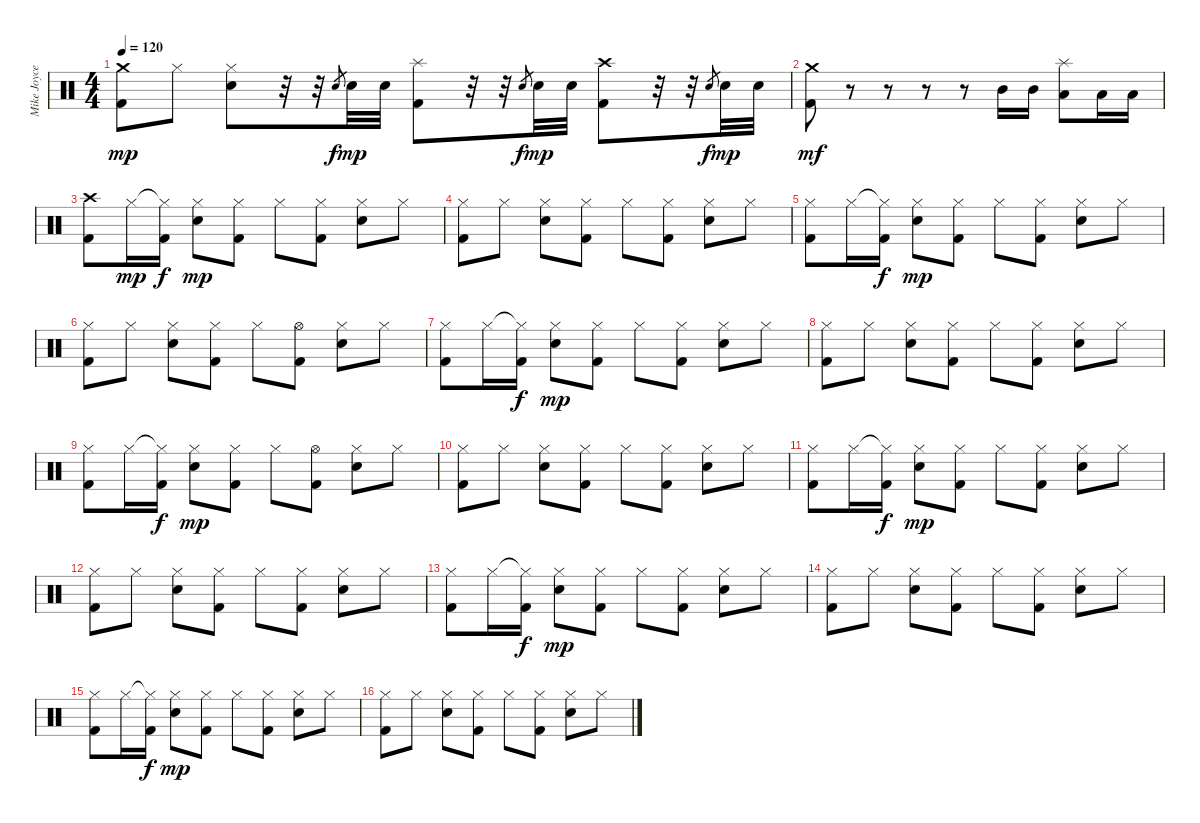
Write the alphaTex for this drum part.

\track ("Mike Joyce" "Mike Joyce") {instrument percussion}
\staff {score}
\articulation defaults
\ts (4 4)
\tempo 120
\clef neutral
\ks c
("Crash medium (hit)" "Kick (hit) 2").8{dy mp} "Hi-Hat (closed)".8 ("Hi-Hat (closed)" "Electric Snare (hit)").8 r.32 r.32 "Electric Snare (hit)".8{gr dy f} "Electric Snare (hit)".32{dy mp} "Electric Snare (hit)".32 ("Splash (hit)" "Kick (hit) 2").8 r.32 r.32 "Electric Snare (hit)".8{gr dy f} "Electric Snare (hit)".32{dy mp} "Electric Snare (hit)".32 ("Crash high (hit)" "Kick (hit) 2").8 r.32 r.32 "Electric Snare (hit)".8{gr dy f} "Electric Snare (hit)".32{dy mp} "Electric Snare (hit)".32 |
("Crash medium (hit)" "Kick (hit) 2").8{dy mf} r.8 r.8 r.8 r.8 "Mid Tom (hit)".16 "Mid Tom (hit)".16 ("Splash (hit)" "Low Tom (hit)").8 "Low Floor Tom (hit)".16 "Low Tom (hit)".16 |
("Crash high (hit)" "Kick (hit) 2").8 "Hi-Hat (closed)".16{dy mp} ("Hi-Hat (closed)"{t} "Kick (hit) 2").16{dy f} ("Hi-Hat (closed)" "Electric Snare (hit)").8{dy mp} ("Hi-Hat (closed)" "Kick (hit) 2").8 "Hi-Hat (closed)".8 ("Hi-Hat (closed)" "Kick (hit) 2").8 ("Hi-Hat (closed)" "Electric Snare (hit)").8 "Hi-Hat (closed)".8 |
("Hi-Hat (closed)" "Kick (hit) 2").8 "Hi-Hat (closed)".8 ("Hi-Hat (closed)" "Electric Snare (hit)").8 ("Hi-Hat (closed)" "Kick (hit) 2").8 "Hi-Hat (closed)".8 ("Hi-Hat (closed)" "Kick (hit) 2").8 ("Hi-Hat (closed)" "Electric Snare (hit)").8 "Hi-Hat (closed)".8 |
("Hi-Hat (closed)" "Kick (hit) 2").8 "Hi-Hat (closed)".16 ("Hi-Hat (closed)"{t} "Kick (hit) 2").16{dy f} ("Hi-Hat (closed)" "Electric Snare (hit)").8{dy mp} ("Hi-Hat (closed)" "Kick (hit) 2").8 "Hi-Hat (closed)".8 ("Hi-Hat (closed)" "Kick (hit) 2").8 ("Hi-Hat (closed)" "Electric Snare (hit)").8 "Hi-Hat (closed)".8 |
("Hi-Hat (closed)" "Kick (hit) 2").8 "Hi-Hat (closed)".8 ("Hi-Hat (closed)" "Electric Snare (hit)").8 ("Hi-Hat (closed)" "Kick (hit) 2").8 "Hi-Hat (closed)".8 ("Hi-Hat (open)" "Kick (hit) 2").8 ("Hi-Hat (closed)" "Electric Snare (hit)").8 "Hi-Hat (closed)".8 |
("Hi-Hat (closed)" "Kick (hit) 2").8 "Hi-Hat (closed)".16 ("Hi-Hat (closed)"{t} "Kick (hit) 2").16{dy f} ("Hi-Hat (closed)" "Electric Snare (hit)").8{dy mp} ("Hi-Hat (closed)" "Kick (hit) 2").8 "Hi-Hat (closed)".8 ("Hi-Hat (closed)" "Kick (hit) 2").8 ("Hi-Hat (closed)" "Electric Snare (hit)").8 "Hi-Hat (closed)".8 |
("Hi-Hat (closed)" "Kick (hit) 2").8 "Hi-Hat (closed)".8 ("Hi-Hat (closed)" "Electric Snare (hit)").8 ("Hi-Hat (closed)" "Kick (hit) 2").8 "Hi-Hat (closed)".8 ("Hi-Hat (closed)" "Kick (hit) 2").8 ("Hi-Hat (closed)" "Electric Snare (hit)").8 "Hi-Hat (closed)".8 |
("Hi-Hat (closed)" "Kick (hit) 2").8 "Hi-Hat (closed)".16 ("Hi-Hat (closed)"{t} "Kick (hit) 2").16{dy f} ("Hi-Hat (closed)" "Electric Snare (hit)").8{dy mp} ("Hi-Hat (closed)" "Kick (hit) 2").8 "Hi-Hat (closed)".8 ("Hi-Hat (open)" "Kick (hit) 2").8 ("Hi-Hat (closed)" "Electric Snare (hit)").8 "Hi-Hat (closed)".8 |
("Hi-Hat (closed)" "Kick (hit) 2").8 "Hi-Hat (closed)".8 ("Hi-Hat (closed)" "Electric Snare (hit)").8 ("Hi-Hat (closed)" "Kick (hit) 2").8 "Hi-Hat (closed)".8 ("Hi-Hat (closed)" "Kick (hit) 2").8 ("Hi-Hat (closed)" "Electric Snare (hit)").8 "Hi-Hat (closed)".8 |
("Hi-Hat (closed)" "Kick (hit) 2").8 "Hi-Hat (closed)".16 ("Hi-Hat (closed)"{t} "Kick (hit) 2").16{dy f} ("Hi-Hat (closed)" "Electric Snare (hit)").8{dy mp} ("Hi-Hat (closed)" "Kick (hit) 2").8 "Hi-Hat (closed)".8 ("Hi-Hat (closed)" "Kick (hit) 2").8 ("Hi-Hat (closed)" "Electric Snare (hit)").8 "Hi-Hat (closed)".8 |
("Hi-Hat (closed)" "Kick (hit) 2").8 "Hi-Hat (closed)".8 ("Hi-Hat (closed)" "Electric Snare (hit)").8 ("Hi-Hat (closed)" "Kick (hit) 2").8 "Hi-Hat (closed)".8 ("Hi-Hat (closed)" "Kick (hit) 2").8 ("Hi-Hat (closed)" "Electric Snare (hit)").8 "Hi-Hat (closed)".8 |
("Hi-Hat (closed)" "Kick (hit) 2").8 "Hi-Hat (closed)".16 ("Hi-Hat (closed)"{t} "Kick (hit) 2").16{dy f} ("Hi-Hat (closed)" "Electric Snare (hit)").8{dy mp} ("Hi-Hat (closed)" "Kick (hit) 2").8 "Hi-Hat (closed)".8 ("Hi-Hat (closed)" "Kick (hit) 2").8 ("Hi-Hat (closed)" "Electric Snare (hit)").8 "Hi-Hat (closed)".8 |
("Hi-Hat (closed)" "Kick (hit) 2").8 "Hi-Hat (closed)".8 ("Hi-Hat (closed)" "Electric Snare (hit)").8 ("Hi-Hat (closed)" "Kick (hit) 2").8 "Hi-Hat (closed)".8 ("Hi-Hat (closed)" "Kick (hit) 2").8 ("Hi-Hat (closed)" "Electric Snare (hit)").8 "Hi-Hat (closed)".8 |
("Hi-Hat (closed)" "Kick (hit) 2").8 "Hi-Hat (closed)".16 ("Hi-Hat (closed)"{t} "Kick (hit) 2").16{dy f} ("Hi-Hat (closed)" "Electric Snare (hit)").8{dy mp} ("Hi-Hat (closed)" "Kick (hit) 2").8 "Hi-Hat (closed)".8 ("Hi-Hat (closed)" "Kick (hit) 2").8 ("Hi-Hat (closed)" "Electric Snare (hit)").8 "Hi-Hat (closed)".8 |
("Hi-Hat (closed)" "Kick (hit) 2").8 "Hi-Hat (closed)".8 ("Hi-Hat (closed)" "Electric Snare (hit)").8 ("Hi-Hat (closed)" "Kick (hit) 2").8 "Hi-Hat (closed)".8 ("Hi-Hat (closed)" "Kick (hit) 2").8 ("Hi-Hat (closed)" "Electric Snare (hit)").8 "Hi-Hat (closed)".8
